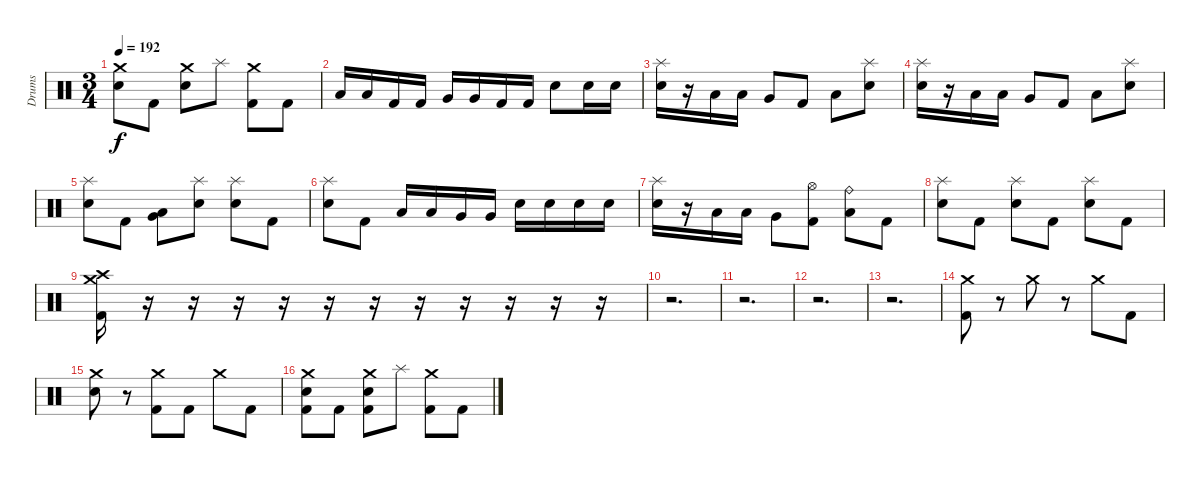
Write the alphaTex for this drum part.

\track ("Drums" "Drums") {instrument percussion}
\staff {score}
\articulation defaults
\ts (3 4)
\tempo 192
\clef neutral
\ks c
("Crash medium (hit)" "Electric Snare (hit)").8{dy f} "Kick (hit) 2".8 ("Crash medium (hit)" "Electric Snare (hit)").8 "Splash (hit)".8 ("Crash medium (hit)" "Kick (hit) 2").8 "Kick (hit) 2".8 |
"Low Tom (hit)".16 "Low Tom (hit)".16 "Kick (hit) 2".16 "Kick (hit) 2".16 "Very Low Tom (hit)".16 "Very Low Tom (hit)".16 "Kick (hit) 2".16 "Kick (hit) 2".16 "Electric Snare (hit)".8 "Electric Snare (hit)".16 "Electric Snare (hit)".16 |
("Splash (hit)" "Electric Snare (hit)").16 r.16 "Low Tom (hit)".16 "Low Tom (hit)".16 "Very Low Tom (hit)".8 "Kick (hit) 2".8 "Low Floor Tom (hit)".8 ("Splash (hit)" "Electric Snare (hit)").8 |
("Splash (hit)" "Electric Snare (hit)").16 r.16 "Low Tom (hit)".16 "Low Tom (hit)".16 "Very Low Tom (hit)".8 "Kick (hit) 2".8 "Low Floor Tom (hit)".8 ("Splash (hit)" "Electric Snare (hit)").8 |
("Splash (hit)" "Electric Snare (hit)").8 "Kick (hit) 2".8 ("Very Low Tom (hit)" "Low Tom (hit)").8 ("Splash (hit)" "Electric Snare (hit)").8 ("Splash (hit)" "Electric Snare (hit)").8 "Kick (hit) 2".8 |
("Splash (hit)" "Electric Snare (hit)").8 "Kick (hit) 2".8 "Low Tom (hit)".16 "Low Tom (hit)".16 "Very Low Tom (hit)".16 "Very Low Tom (hit)".16 "Electric Snare (hit)".16 "Electric Snare (hit)".16 "Electric Snare (hit)".16 "Electric Snare (hit)".16 |
("Splash (hit)" "Electric Snare (hit)").16 r.16 "Low Tom (hit)".16 "Low Tom (hit)".16 "Very Low Tom (hit)".8 ("Hi-Hat (open)" "Kick (hit) 2").8 ("Ride (bell)" "Low Floor Tom (hit)").8 "Kick (hit) 2".8 |
("Splash (hit)" "Electric Snare (hit)").8 "Kick (hit) 2".8 ("Splash (hit)" "Electric Snare (hit)").8 "Kick (hit) 2".8 ("Splash (hit)" "Electric Snare (hit)").8 "Kick (hit) 2".8 |
("Crash medium (hit)" "Crash high (hit)" "Kick (hit) 2").16 r.16 r.16 r.16 r.16 r.16 r.16 r.16 r.16 r.16 r.16 r.16 |
r.2{d} |
r.2{d} |
r.2{d} |
r.2{d} |
("Crash medium (hit)" "Kick (hit) 2").8 r.8 "Crash medium (hit)".8 r.8 "Crash medium (hit)".8 "Kick (hit) 2".8 |
("Crash medium (hit)" "Electric Snare (hit)").8 r.8 ("Crash medium (hit)" "Kick (hit) 2").8 "Kick (hit) 2".8 "Crash medium (hit)".8 "Kick (hit) 2".8 |
("Crash medium (hit)" "Electric Snare (hit)" "Kick (hit) 2").8 "Kick (hit) 2".8 ("Crash medium (hit)" "Electric Snare (hit)" "Kick (hit) 2").8 "Splash (hit)".8 ("Crash medium (hit)" "Kick (hit) 2").8 "Kick (hit) 2".8
